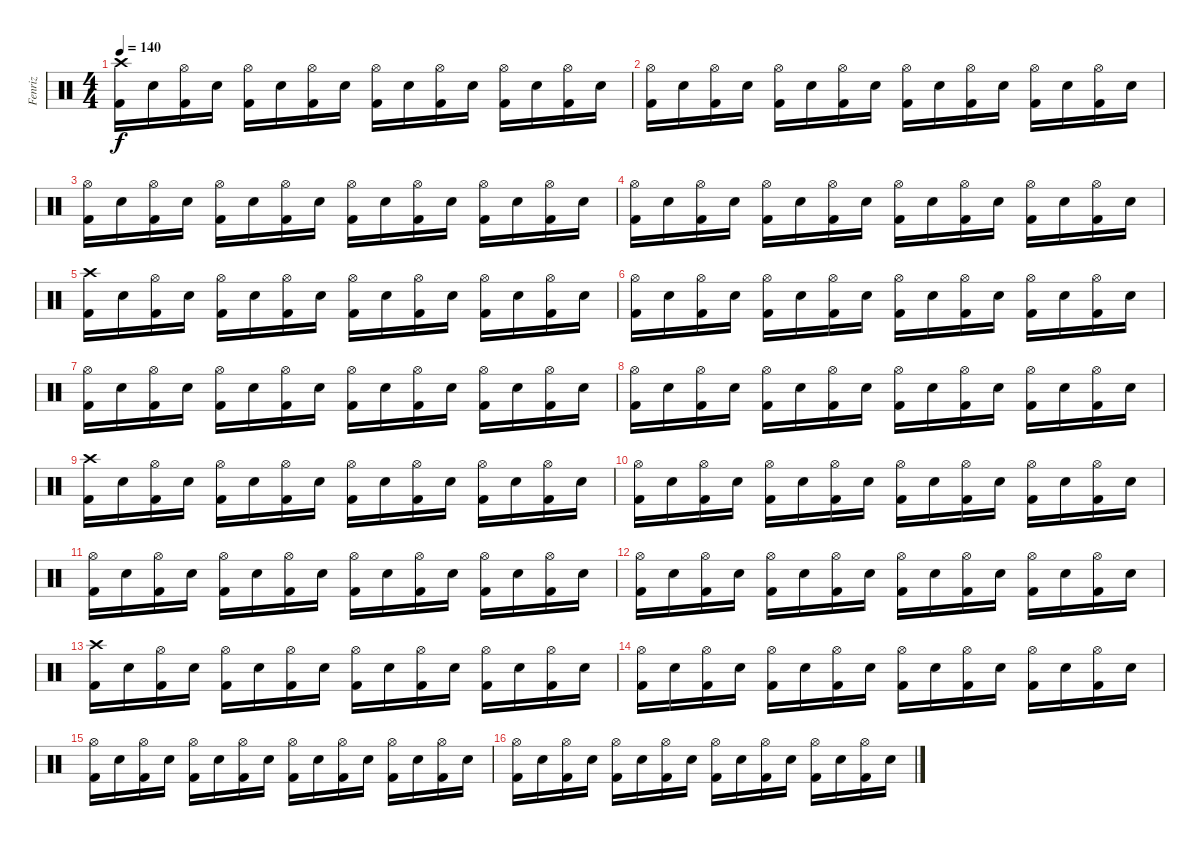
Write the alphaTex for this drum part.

\track ("Fenriz" "Fenriz") {instrument percussion}
\staff {score}
\articulation defaults
\ts (4 4)
\tempo 140
\clef neutral
\ks c
("Kick (hit) 2" "Crash high (hit)").16{dy f} "Electric Snare (hit)".16 ("Kick (hit) 2" "Hi-Hat (open)").16 "Electric Snare (hit)".16 ("Kick (hit) 2" "Hi-Hat (open)").16 "Electric Snare (hit)".16 ("Kick (hit) 2" "Hi-Hat (open)").16 "Electric Snare (hit)".16 ("Kick (hit) 2" "Hi-Hat (open)").16 "Electric Snare (hit)".16 ("Kick (hit) 2" "Hi-Hat (open)").16 "Electric Snare (hit)".16 ("Kick (hit) 2" "Hi-Hat (open)").16 "Electric Snare (hit)".16 ("Kick (hit) 2" "Hi-Hat (open)").16 "Electric Snare (hit)".16 |
("Kick (hit) 2" "Hi-Hat (open)").16 "Electric Snare (hit)".16 ("Kick (hit) 2" "Hi-Hat (open)").16 "Electric Snare (hit)".16 ("Kick (hit) 2" "Hi-Hat (open)").16 "Electric Snare (hit)".16 ("Kick (hit) 2" "Hi-Hat (open)").16 "Electric Snare (hit)".16 ("Kick (hit) 2" "Hi-Hat (open)").16 "Electric Snare (hit)".16 ("Kick (hit) 2" "Hi-Hat (open)").16 "Electric Snare (hit)".16 ("Kick (hit) 2" "Hi-Hat (open)").16 "Electric Snare (hit)".16 ("Kick (hit) 2" "Hi-Hat (open)").16 "Electric Snare (hit)".16 |
("Kick (hit) 2" "Hi-Hat (open)").16 "Electric Snare (hit)".16 ("Kick (hit) 2" "Hi-Hat (open)").16 "Electric Snare (hit)".16 ("Kick (hit) 2" "Hi-Hat (open)").16 "Electric Snare (hit)".16 ("Kick (hit) 2" "Hi-Hat (open)").16 "Electric Snare (hit)".16 ("Kick (hit) 2" "Hi-Hat (open)").16 "Electric Snare (hit)".16 ("Kick (hit) 2" "Hi-Hat (open)").16 "Electric Snare (hit)".16 ("Kick (hit) 2" "Hi-Hat (open)").16 "Electric Snare (hit)".16 ("Kick (hit) 2" "Hi-Hat (open)").16 "Electric Snare (hit)".16 |
("Kick (hit) 2" "Hi-Hat (open)").16 "Electric Snare (hit)".16 ("Kick (hit) 2" "Hi-Hat (open)").16 "Electric Snare (hit)".16 ("Kick (hit) 2" "Hi-Hat (open)").16 "Electric Snare (hit)".16 ("Kick (hit) 2" "Hi-Hat (open)").16 "Electric Snare (hit)".16 ("Kick (hit) 2" "Hi-Hat (open)").16 "Electric Snare (hit)".16 ("Kick (hit) 2" "Hi-Hat (open)").16 "Electric Snare (hit)".16 ("Kick (hit) 2" "Hi-Hat (open)").16 "Electric Snare (hit)".16 ("Kick (hit) 2" "Hi-Hat (open)").16 "Electric Snare (hit)".16 |
("Kick (hit) 2" "Crash high (hit)").16 "Electric Snare (hit)".16 ("Kick (hit) 2" "Hi-Hat (open)").16 "Electric Snare (hit)".16 ("Kick (hit) 2" "Hi-Hat (open)").16 "Electric Snare (hit)".16 ("Kick (hit) 2" "Hi-Hat (open)").16 "Electric Snare (hit)".16 ("Kick (hit) 2" "Hi-Hat (open)").16 "Electric Snare (hit)".16 ("Kick (hit) 2" "Hi-Hat (open)").16 "Electric Snare (hit)".16 ("Kick (hit) 2" "Hi-Hat (open)").16 "Electric Snare (hit)".16 ("Kick (hit) 2" "Hi-Hat (open)").16 "Electric Snare (hit)".16 |
("Kick (hit) 2" "Hi-Hat (open)").16 "Electric Snare (hit)".16 ("Kick (hit) 2" "Hi-Hat (open)").16 "Electric Snare (hit)".16 ("Kick (hit) 2" "Hi-Hat (open)").16 "Electric Snare (hit)".16 ("Kick (hit) 2" "Hi-Hat (open)").16 "Electric Snare (hit)".16 ("Kick (hit) 2" "Hi-Hat (open)").16 "Electric Snare (hit)".16 ("Kick (hit) 2" "Hi-Hat (open)").16 "Electric Snare (hit)".16 ("Kick (hit) 2" "Hi-Hat (open)").16 "Electric Snare (hit)".16 ("Kick (hit) 2" "Hi-Hat (open)").16 "Electric Snare (hit)".16 |
("Kick (hit) 2" "Hi-Hat (open)").16 "Electric Snare (hit)".16 ("Kick (hit) 2" "Hi-Hat (open)").16 "Electric Snare (hit)".16 ("Kick (hit) 2" "Hi-Hat (open)").16 "Electric Snare (hit)".16 ("Kick (hit) 2" "Hi-Hat (open)").16 "Electric Snare (hit)".16 ("Kick (hit) 2" "Hi-Hat (open)").16 "Electric Snare (hit)".16 ("Kick (hit) 2" "Hi-Hat (open)").16 "Electric Snare (hit)".16 ("Kick (hit) 2" "Hi-Hat (open)").16 "Electric Snare (hit)".16 ("Kick (hit) 2" "Hi-Hat (open)").16 "Electric Snare (hit)".16 |
("Kick (hit) 2" "Hi-Hat (open)").16 "Electric Snare (hit)".16 ("Kick (hit) 2" "Hi-Hat (open)").16 "Electric Snare (hit)".16 ("Kick (hit) 2" "Hi-Hat (open)").16 "Electric Snare (hit)".16 ("Kick (hit) 2" "Hi-Hat (open)").16 "Electric Snare (hit)".16 ("Kick (hit) 2" "Hi-Hat (open)").16 "Electric Snare (hit)".16 ("Kick (hit) 2" "Hi-Hat (open)").16 "Electric Snare (hit)".16 ("Kick (hit) 2" "Hi-Hat (open)").16 "Electric Snare (hit)".16 ("Kick (hit) 2" "Hi-Hat (open)").16 "Electric Snare (hit)".16 |
("Kick (hit) 2" "Crash high (hit)").16 "Electric Snare (hit)".16 ("Kick (hit) 2" "Hi-Hat (open)").16 "Electric Snare (hit)".16 ("Kick (hit) 2" "Hi-Hat (open)").16 "Electric Snare (hit)".16 ("Kick (hit) 2" "Hi-Hat (open)").16 "Electric Snare (hit)".16 ("Kick (hit) 2" "Hi-Hat (open)").16 "Electric Snare (hit)".16 ("Kick (hit) 2" "Hi-Hat (open)").16 "Electric Snare (hit)".16 ("Kick (hit) 2" "Hi-Hat (open)").16 "Electric Snare (hit)".16 ("Kick (hit) 2" "Hi-Hat (open)").16 "Electric Snare (hit)".16 |
("Kick (hit) 2" "Hi-Hat (open)").16 "Electric Snare (hit)".16 ("Kick (hit) 2" "Hi-Hat (open)").16 "Electric Snare (hit)".16 ("Kick (hit) 2" "Hi-Hat (open)").16 "Electric Snare (hit)".16 ("Kick (hit) 2" "Hi-Hat (open)").16 "Electric Snare (hit)".16 ("Kick (hit) 2" "Hi-Hat (open)").16 "Electric Snare (hit)".16 ("Kick (hit) 2" "Hi-Hat (open)").16 "Electric Snare (hit)".16 ("Kick (hit) 2" "Hi-Hat (open)").16 "Electric Snare (hit)".16 ("Kick (hit) 2" "Hi-Hat (open)").16 "Electric Snare (hit)".16 |
("Kick (hit) 2" "Hi-Hat (open)").16 "Electric Snare (hit)".16 ("Kick (hit) 2" "Hi-Hat (open)").16 "Electric Snare (hit)".16 ("Kick (hit) 2" "Hi-Hat (open)").16 "Electric Snare (hit)".16 ("Kick (hit) 2" "Hi-Hat (open)").16 "Electric Snare (hit)".16 ("Kick (hit) 2" "Hi-Hat (open)").16 "Electric Snare (hit)".16 ("Kick (hit) 2" "Hi-Hat (open)").16 "Electric Snare (hit)".16 ("Kick (hit) 2" "Hi-Hat (open)").16 "Electric Snare (hit)".16 ("Kick (hit) 2" "Hi-Hat (open)").16 "Electric Snare (hit)".16 |
("Kick (hit) 2" "Hi-Hat (open)").16 "Electric Snare (hit)".16 ("Kick (hit) 2" "Hi-Hat (open)").16 "Electric Snare (hit)".16 ("Kick (hit) 2" "Hi-Hat (open)").16 "Electric Snare (hit)".16 ("Kick (hit) 2" "Hi-Hat (open)").16 "Electric Snare (hit)".16 ("Kick (hit) 2" "Hi-Hat (open)").16 "Electric Snare (hit)".16 ("Kick (hit) 2" "Hi-Hat (open)").16 "Electric Snare (hit)".16 ("Kick (hit) 2" "Hi-Hat (open)").16 "Electric Snare (hit)".16 ("Kick (hit) 2" "Hi-Hat (open)").16 "Electric Snare (hit)".16 |
("Kick (hit) 2" "Crash high (hit)").16 "Electric Snare (hit)".16 ("Kick (hit) 2" "Hi-Hat (open)").16 "Electric Snare (hit)".16 ("Kick (hit) 2" "Hi-Hat (open)").16 "Electric Snare (hit)".16 ("Kick (hit) 2" "Hi-Hat (open)").16 "Electric Snare (hit)".16 ("Kick (hit) 2" "Hi-Hat (open)").16 "Electric Snare (hit)".16 ("Kick (hit) 2" "Hi-Hat (open)").16 "Electric Snare (hit)".16 ("Kick (hit) 2" "Hi-Hat (open)").16 "Electric Snare (hit)".16 ("Kick (hit) 2" "Hi-Hat (open)").16 "Electric Snare (hit)".16 |
("Kick (hit) 2" "Hi-Hat (open)").16 "Electric Snare (hit)".16 ("Kick (hit) 2" "Hi-Hat (open)").16 "Electric Snare (hit)".16 ("Kick (hit) 2" "Hi-Hat (open)").16 "Electric Snare (hit)".16 ("Kick (hit) 2" "Hi-Hat (open)").16 "Electric Snare (hit)".16 ("Kick (hit) 2" "Hi-Hat (open)").16 "Electric Snare (hit)".16 ("Kick (hit) 2" "Hi-Hat (open)").16 "Electric Snare (hit)".16 ("Kick (hit) 2" "Hi-Hat (open)").16 "Electric Snare (hit)".16 ("Kick (hit) 2" "Hi-Hat (open)").16 "Electric Snare (hit)".16 |
("Kick (hit) 2" "Hi-Hat (open)").16 "Electric Snare (hit)".16 ("Kick (hit) 2" "Hi-Hat (open)").16 "Electric Snare (hit)".16 ("Kick (hit) 2" "Hi-Hat (open)").16 "Electric Snare (hit)".16 ("Kick (hit) 2" "Hi-Hat (open)").16 "Electric Snare (hit)".16 ("Kick (hit) 2" "Hi-Hat (open)").16 "Electric Snare (hit)".16 ("Kick (hit) 2" "Hi-Hat (open)").16 "Electric Snare (hit)".16 ("Kick (hit) 2" "Hi-Hat (open)").16 "Electric Snare (hit)".16 ("Kick (hit) 2" "Hi-Hat (open)").16 "Electric Snare (hit)".16 |
("Kick (hit) 2" "Hi-Hat (open)").16 "Electric Snare (hit)".16 ("Kick (hit) 2" "Hi-Hat (open)").16 "Electric Snare (hit)".16 ("Kick (hit) 2" "Hi-Hat (open)").16 "Electric Snare (hit)".16 ("Kick (hit) 2" "Hi-Hat (open)").16 "Electric Snare (hit)".16 ("Kick (hit) 2" "Hi-Hat (open)").16 "Electric Snare (hit)".16 ("Kick (hit) 2" "Hi-Hat (open)").16 "Electric Snare (hit)".16 ("Kick (hit) 2" "Hi-Hat (open)").16 "Electric Snare (hit)".16 ("Kick (hit) 2" "Hi-Hat (open)").16 "Electric Snare (hit)".16
